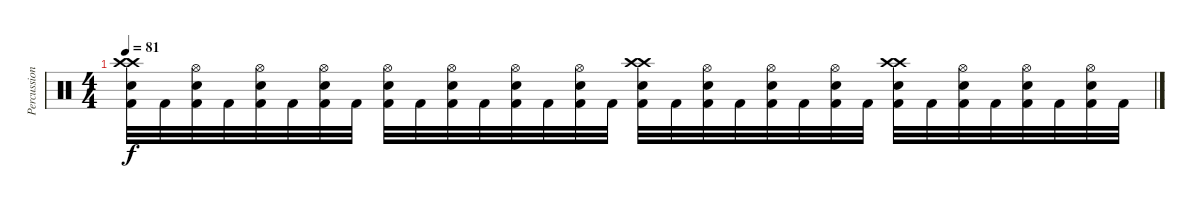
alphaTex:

\track ("Percussion" "Percussion") {instrument percussion}
\staff {score}
\articulation defaults
\ts (4 4)
\tempo 81
\clef neutral
\ks c
("Crash high (hit)" "Kick (hit) 2" "Snare (hit) 2" "Crash high (hit)").32{dy f} "Kick (hit) 2".32 ("Hi-Hat (open)" "Kick (hit) 2" "Snare (hit) 2").32 "Kick (hit) 2".32 ("Hi-Hat (open)" "Kick (hit) 2" "Snare (hit) 2").32 "Kick (hit) 2".32 ("Hi-Hat (open)" "Kick (hit) 2" "Snare (hit) 2").32 "Kick (hit) 2".32 ("Hi-Hat (open)" "Kick (hit) 2" "Snare (hit) 2").32 "Kick (hit) 2".32 ("Hi-Hat (open)" "Kick (hit) 2" "Snare (hit) 2").32 "Kick (hit) 2".32 ("Hi-Hat (open)" "Kick (hit) 2" "Snare (hit) 2").32 "Kick (hit) 2".32 ("Hi-Hat (open)" "Kick (hit) 2" "Snare (hit) 2").32 "Kick (hit) 2".32 ("Crash high (hit)" "Kick (hit) 2" "Snare (hit) 2" "Crash high (hit)").32 "Kick (hit) 2".32 ("Hi-Hat (open)" "Kick (hit) 2" "Snare (hit) 2").32 "Kick (hit) 2".32 ("Hi-Hat (open)" "Kick (hit) 2" "Snare (hit) 2").32 "Kick (hit) 2".32 ("Hi-Hat (open)" "Kick (hit) 2" "Snare (hit) 2").32 "Kick (hit) 2".32 ("Crash high (hit)" "Kick (hit) 2" "Snare (hit) 2" "Crash high (hit)").32 "Kick (hit) 2".32 ("Hi-Hat (open)" "Kick (hit) 2" "Snare (hit) 2").32 "Kick (hit) 2".32 ("Hi-Hat (open)" "Kick (hit) 2" "Snare (hit) 2").32 "Kick (hit) 2".32 ("Hi-Hat (open)" "Kick (hit) 2" "Snare (hit) 2").32 "Kick (hit) 2".32
